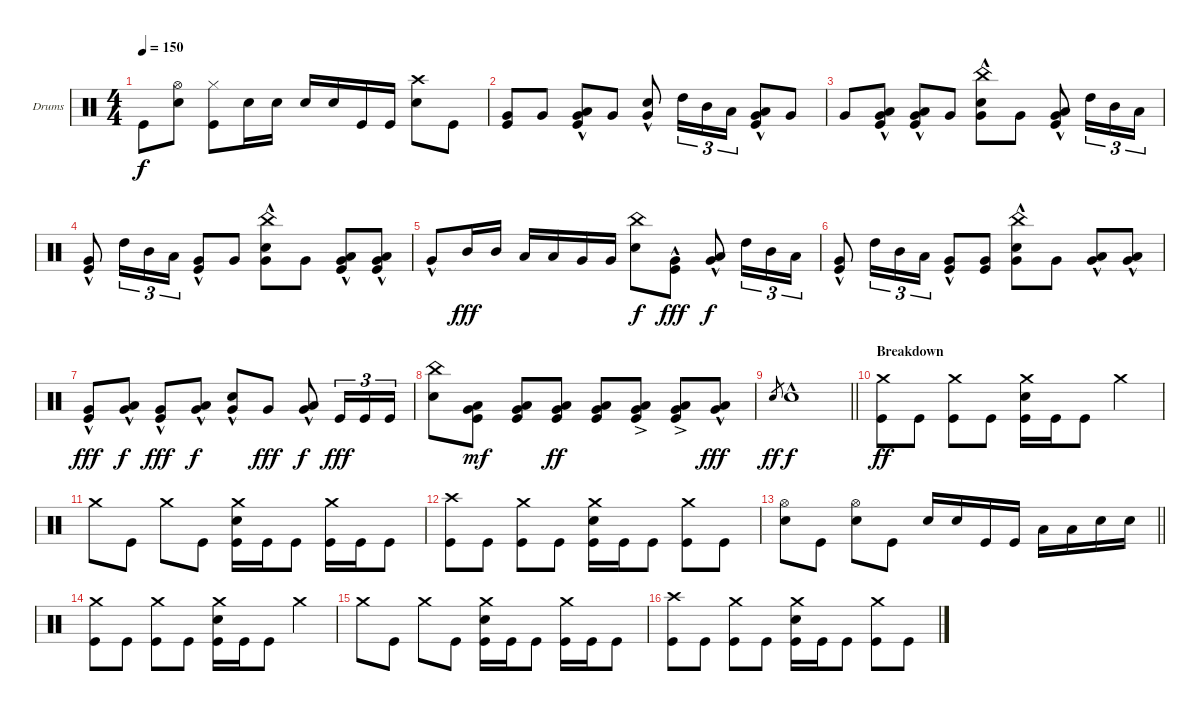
\bracketExtendMode groupsimilarinstruments
\firstSystemTrackNameOrientation horizontal
\otherSystemsTrackNameOrientation horizontal
\track ("Drumkit" "Drums") {instrument percussion}
\staff {score}
\articulation defaults
\ts (4 4)
\tempo 150
\clef neutral
\ks c "Kick (hit)".8{dy f}
("Hi-Hat (open)" "Snare (hit) 2").8 ("Hi-Hat (closed)" "Kick (hit)").8 "Snare (hit) 2".16 "Snare (hit) 2".16 "Snare (hit) 2".16 "Snare (hit) 2".16 "Kick (hit)".16 "Kick (hit)".16 ("Crash high (hit)" "Snare (hit) 2").8 "Kick (hit)".8 |
("Very Low Tom (hit)" "Kick (hit)").8 "Very Low Tom (hit)".8 ("Low Tom (hit)"{hac} "Very Low Tom (hit)"{hac} "Kick (hit)").8 "Very Low Tom (hit)".8 ("Snare (hit) 2"{hac} "Very Low Tom (hit)"{hac}).8 "High Tom (hit)".16{tu (3 2)} "Mid Tom (hit)".16{tu (3 2)} "Low Tom (hit)".16{tu (3 2)} ("Low Tom (hit)"{hac} "Very Low Tom (hit)"{hac} "Kick (hit)").8 "Very Low Tom (hit)".8 |
"Very Low Tom (hit)".8 ("Low Tom (hit)"{hac} "Very Low Tom (hit)"{hac} "Kick (hit)").8 ("Low Tom (hit)"{hac} "Very Low Tom (hit)"{hac} "Kick (hit)").8 "Very Low Tom (hit)".8 ("China (hit)" "Snare (hit) 2"{hac} "Very Low Tom (hit)"{hac}).8 "Very Low Tom (hit)".8 ("Low Tom (hit)"{hac} "Very Low Tom (hit)"{hac} "Kick (hit)"{hac}).8 "High Tom (hit)".16{tu (3 2)} "Mid Tom (hit)".16{tu (3 2)} "Low Tom (hit)".16{tu (3 2)} |
("Very Low Tom (hit)"{hac} "Kick (hit)"{hac}).8 "High Tom (hit)".16{tu (3 2)} "Mid Tom (hit)".16{tu (3 2)} "Low Tom (hit)".16{tu (3 2)} ("Very Low Tom (hit)"{hac} "Kick (hit)"{hac}).8 "Very Low Tom (hit)".8 ("China (hit)" "Snare (hit) 2"{hac} "Very Low Tom (hit)"{hac}).8 "Very Low Tom (hit)".8 ("Low Tom (hit)"{hac} "Very Low Tom (hit)"{hac} "Kick (hit)"{hac}).8 ("Low Tom (hit)"{hac} "Very Low Tom (hit)"{hac} "Kick (hit)"{hac}).8 |
"Very Low Tom (hit)"{hac}.8 "Mid Tom (hit)".16{dy fff} "Mid Tom (hit)".16 "Low Tom (hit)".16 "Low Tom (hit)".16 "Very Low Tom (hit)".16 "Very Low Tom (hit)".16 ("China (hit)" "Snare (hit) 2").8{dy f} ("Very Low Tom (hit)" "Kick (hit)"{hac}).8{dy fff} ("Low Tom (hit)"{hac} "Very Low Tom (hit)"{hac}).8{dy f} "High Tom (hit)".16{tu (3 2)} "Mid Tom (hit)".16{tu (3 2)} "Low Tom (hit)".16{tu (3 2)} |
("Very Low Tom (hit)"{hac} "Kick (hit)"{hac}).8 "High Tom (hit)".16{tu (3 2)} "Mid Tom (hit)".16{tu (3 2)} "Low Tom (hit)".16{tu (3 2)} ("Very Low Tom (hit)"{hac} "Kick (hit)"{hac}).8 ("Very Low Tom (hit)" "Kick (hit)").8 ("China (hit)" "Snare (hit) 2"{hac} "Very Low Tom (hit)"{hac}).8 "Very Low Tom (hit)".8 ("Low Tom (hit)"{hac} "Very Low Tom (hit)"{hac}).8 ("Low Tom (hit)"{hac} "Very Low Tom (hit)"{hac}).8 |
("Very Low Tom (hit)" "Kick (hit)"{hac}).8{dy fff} ("Low Tom (hit)"{hac} "Very Low Tom (hit)"{hac}).8{dy f} ("Very Low Tom (hit)" "Kick (hit)"{hac}).8{dy fff} ("Low Tom (hit)"{hac} "Very Low Tom (hit)"{hac}).8{dy f} ("Snare (hit) 2"{hac} "Very Low Tom (hit)"{hac}).8 "Very Low Tom (hit)".8{dy fff} ("Low Tom (hit)"{hac} "Very Low Tom (hit)"{hac}).8{dy f} "Kick (hit)".16{tu (3 2) dy fff} "Kick (hit)".16{tu (3 2)} "Kick (hit)".16{tu (3 2)} |
("China (hit)" "Snare (hit) 2").8 ("Low Tom (hit)" "Very Low Tom (hit)" "Kick (hit)").8{dy mf} ("Low Tom (hit)" "Very Low Tom (hit)" "Kick (hit)").8 ("Low Tom (hit)" "Very Low Tom (hit)" "Kick (hit)").8{dy ff} ("Low Tom (hit)" "Very Low Tom (hit)" "Kick (hit)").8 ("Low Tom (hit)"{ac} "Very Low Tom (hit)"{ac} "Kick (hit)"{ac}).8 ("Low Tom (hit)"{ac} "Very Low Tom (hit)"{ac} "Kick (hit)"{ac}).8 ("Low Tom (hit)"{hac} "Very Low Tom (hit)"{hac}).8{dy fff} |
\barLineRight lightlight "Snare (hit) 2".8{gr dy ff} "Snare (hit) 2"{hac}.1{dy f}
|
\section ("" "Breakdown")
("Crash medium (hit)" "Kick (hit)").8{dy ff} "Kick (hit)".8 ("Crash medium (hit)" "Kick (hit)").8 "Kick (hit)".8 ("Crash medium (hit)" "Snare (hit) 2" "Kick (hit)").16 "Kick (hit)".16 "Kick (hit)".8 "Crash medium (hit)".4 |
"Crash medium (hit)".8 "Kick (hit)".8 "Crash medium (hit)".8 "Kick (hit)".8 ("Crash medium (hit)" "Snare (hit) 2" "Kick (hit)").16 "Kick (hit)".16 "Kick (hit)".8 ("Crash medium (hit)" "Kick (hit)").16 "Kick (hit)".16 "Kick (hit)".8 |
("Crash high (hit)" "Kick (hit)").8 "Kick (hit)".8 ("Crash medium (hit)" "Kick (hit)").8 "Kick (hit)".8 ("Crash medium (hit)" "Snare (hit) 2" "Kick (hit)").16 "Kick (hit)".16 "Kick (hit)".8 ("Crash medium (hit)" "Kick (hit)").8 "Kick (hit)".8 |
\barLineRight lightlight
("Hi-Hat (open)" "Snare (hit) 2").8 "Kick (hit)".8 ("Hi-Hat (open)" "Snare (hit) 2").8 "Kick (hit)".8 "Snare (hit) 2".16 "Snare (hit) 2".16 "Kick (hit)".16 "Kick (hit)".16 "Low Tom (hit)".16 "Low Tom (hit)".16 "Snare (hit) 2".16 "Snare (hit) 2".16 |
("Crash medium (hit)" "Kick (hit)").8 "Kick (hit)".8 ("Crash medium (hit)" "Kick (hit)").8 "Kick (hit)".8 ("Crash medium (hit)" "Snare (hit) 2" "Kick (hit)").16 "Kick (hit)".16 "Kick (hit)".8 "Crash medium (hit)".4 |
"Crash medium (hit)".8 "Kick (hit)".8 "Crash medium (hit)".8 "Kick (hit)".8 ("Crash medium (hit)" "Snare (hit) 2" "Kick (hit)").16 "Kick (hit)".16 "Kick (hit)".8 ("Crash medium (hit)" "Kick (hit)").16 "Kick (hit)".16 "Kick (hit)".8 |
("Crash high (hit)" "Kick (hit)").8 "Kick (hit)".8 ("Crash medium (hit)" "Kick (hit)").8 "Kick (hit)".8 ("Crash medium (hit)" "Snare (hit) 2" "Kick (hit)").16 "Kick (hit)".16 "Kick (hit)".8 ("Crash medium (hit)" "Kick (hit)").8 "Kick (hit)".8
